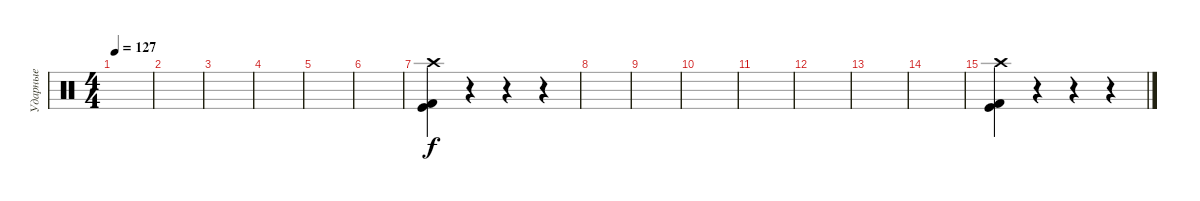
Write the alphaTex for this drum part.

\track ("Ударные" "Ударные") {instrument percussion}
\staff {score}
\articulation defaults
\ts (4 4)
\tempo 127
\clef neutral
\ks c
|
|
|
|
|
|
("Kick (hit) 2" "Kick (hit)" "Crash high (hit)").4{dy f} r.4 r.4 r.4 |
|
|
|
|
|
|
|
("Kick (hit) 2" "Kick (hit)" "Crash high (hit)").4 r.4 r.4 r.4
